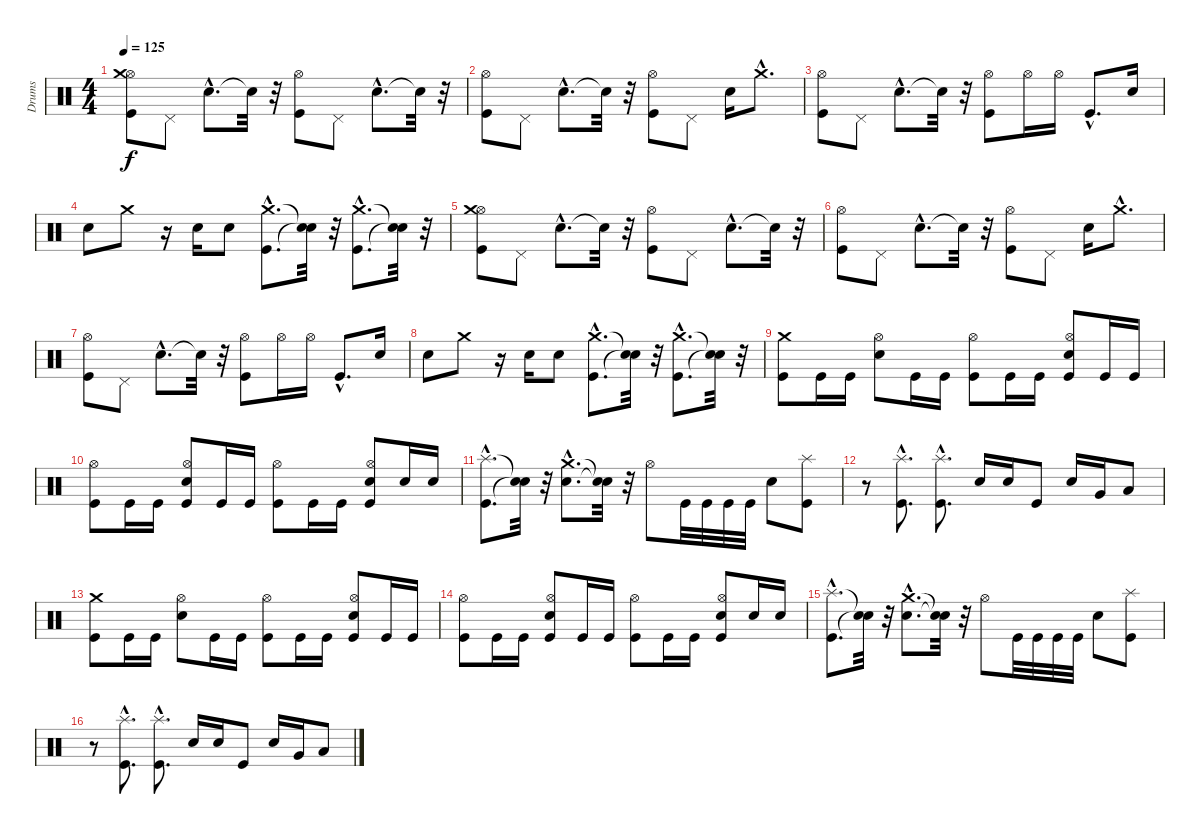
\track ("Drums" "Drums") {instrument percussion}
\staff {score}
\articulation defaults
\ts (4 4)
\tempo 125
\clef neutral
\ks c
("Kick (hit)" "Hi-Hat (open)" "Crash medium (hit)").8{dy f} "Pedal Hi-Hat (hit)".8 "Electric Snare (hit)"{hac}.8{d} "Snare (hit)"{t}.32 r.32 ("Kick (hit)" "Hi-Hat (open)").8 "Pedal Hi-Hat (hit)".8 "Electric Snare (hit)"{hac}.8{d} "Snare (hit)"{t}.32 r.32 |
("Kick (hit)" "Hi-Hat (open)").8 "Pedal Hi-Hat (hit)".8 "Electric Snare (hit)"{hac}.8{d} "Snare (hit)"{t}.32 r.32 ("Kick (hit)" "Hi-Hat (open)").8 "Pedal Hi-Hat (hit)".8 "Electric Snare (hit)".16 "Crash medium (hit)"{hac}.8{d} |
("Kick (hit)" "Hi-Hat (open)").8 "Pedal Hi-Hat (hit)".8 "Electric Snare (hit)"{hac}.8{d} "Snare (hit)"{t}.32 r.32 ("Kick (hit)" "Hi-Hat (open)").8 "Hi-Hat (open)".16 "Hi-Hat (open)".16 "Kick (hit)"{hac}.8{d} "Electric Snare (hit)".16 |
"Electric Snare (hit)".8 "Crash medium (hit)".8 r.16 "Electric Snare (hit)".16 "Electric Snare (hit)".8 ("Kick (hit)"{hac} "Crash medium (hit)"{hac}).8{d} ("Snare (hit)"{t} "Snare (hit)"{t}).32 r.32 ("Kick (hit)"{hac} "Crash medium (hit)"{hac}).8{d} ("Snare (hit)"{t} "Snare (hit)"{t}).32 r.32 |
("Kick (hit)" "Hi-Hat (open)" "Crash medium (hit)").8 "Pedal Hi-Hat (hit)".8 "Electric Snare (hit)"{hac}.8{d} "Snare (hit)"{t}.32 r.32 ("Kick (hit)" "Hi-Hat (open)").8 "Pedal Hi-Hat (hit)".8 "Electric Snare (hit)"{hac}.8{d} "Snare (hit)"{t}.32 r.32 |
("Kick (hit)" "Hi-Hat (open)").8 "Pedal Hi-Hat (hit)".8 "Electric Snare (hit)"{hac}.8{d} "Snare (hit)"{t}.32 r.32 ("Kick (hit)" "Hi-Hat (open)").8 "Pedal Hi-Hat (hit)".8 "Electric Snare (hit)".16 "Crash medium (hit)"{hac}.8{d} |
("Kick (hit)" "Hi-Hat (open)").8 "Pedal Hi-Hat (hit)".8 "Electric Snare (hit)"{hac}.8{d} "Snare (hit)"{t}.32 r.32 ("Kick (hit)" "Hi-Hat (open)").8 "Hi-Hat (open)".16 "Hi-Hat (open)".16 "Kick (hit)"{hac}.8{d} "Electric Snare (hit)".16 |
"Electric Snare (hit)".8 "Crash medium (hit)".8 r.16 "Electric Snare (hit)".16 "Electric Snare (hit)".8 ("Kick (hit)"{hac} "Crash medium (hit)"{hac}).8{d} ("Snare (hit)"{t} "Snare (hit)"{t}).32 r.32 ("Kick (hit)"{hac} "Crash medium (hit)"{hac}).8{d} ("Snare (hit)"{t} "Snare (hit)"{t}).32 r.32 |
("Kick (hit)" "Crash medium (hit)").8 "Kick (hit)".16 "Kick (hit)".16 ("Electric Snare (hit)" "Hi-Hat (open)").8 "Kick (hit)".16 "Kick (hit)".16 ("Kick (hit)" "Hi-Hat (open)").8 "Kick (hit)".16 "Kick (hit)".16 ("Kick (hit)" "Electric Snare (hit)" "Hi-Hat (open)").8 "Kick (hit)".16 "Kick (hit)".16 |
("Kick (hit)" "Hi-Hat (open)").8 "Kick (hit)".16 "Kick (hit)".16 ("Kick (hit)" "Electric Snare (hit)" "Hi-Hat (open)").8 "Kick (hit)".16 "Kick (hit)".16 ("Kick (hit)" "Hi-Hat (open)").8 "Kick (hit)".16 "Kick (hit)".16 ("Kick (hit)" "Electric Snare (hit)" "Hi-Hat (open)").8 "Electric Snare (hit)".16 "Electric Snare (hit)".16 |
("Kick (hit)"{hac} "Splash (hit)"{hac}).8{d} ("Snare (hit)"{t} "Snare (hit)"{t}).32 r.32 ("Electric Snare (hit)"{hac} "Crash medium (hit)"{hac}).8{d} ("Snare (hit)"{t} "Snare (hit)"{t}).32 r.32 "Hi-Hat (open)".8 "Kick (hit)".32 "Kick (hit)".32 "Kick (hit)".32 "Kick (hit)".32 "Electric Snare (hit)".8 ("Kick (hit)" "Splash (hit)").8 |
r.8 ("Kick (hit)"{hac} "Splash (hit)"{hac}).8{d} ("Kick (hit)"{hac} "Splash (hit)"{hac}).8{d} "Electric Snare (hit)".16 "Electric Snare (hit)".16 "Kick (hit)".8 "Electric Snare (hit)".16 "Very Low Tom (hit)".16 "Low Floor Tom (hit)".8 |
("Kick (hit)" "Crash medium (hit)").8 "Kick (hit)".16 "Kick (hit)".16 ("Electric Snare (hit)" "Hi-Hat (open)").8 "Kick (hit)".16 "Kick (hit)".16 ("Kick (hit)" "Hi-Hat (open)").8 "Kick (hit)".16 "Kick (hit)".16 ("Kick (hit)" "Electric Snare (hit)" "Hi-Hat (open)").8 "Kick (hit)".16 "Kick (hit)".16 |
("Kick (hit)" "Hi-Hat (open)").8 "Kick (hit)".16 "Kick (hit)".16 ("Kick (hit)" "Electric Snare (hit)" "Hi-Hat (open)").8 "Kick (hit)".16 "Kick (hit)".16 ("Kick (hit)" "Hi-Hat (open)").8 "Kick (hit)".16 "Kick (hit)".16 ("Kick (hit)" "Electric Snare (hit)" "Hi-Hat (open)").8 "Electric Snare (hit)".16 "Electric Snare (hit)".16 |
("Kick (hit)"{hac} "Splash (hit)"{hac}).8{d} ("Snare (hit)"{t} "Snare (hit)"{t}).32 r.32 ("Electric Snare (hit)"{hac} "Crash medium (hit)"{hac}).8{d} ("Snare (hit)"{t} "Snare (hit)"{t}).32 r.32 "Hi-Hat (open)".8 "Kick (hit)".32 "Kick (hit)".32 "Kick (hit)".32 "Kick (hit)".32 "Electric Snare (hit)".8 ("Kick (hit)" "Splash (hit)").8 |
r.8 ("Kick (hit)"{hac} "Splash (hit)"{hac}).8{d} ("Kick (hit)"{hac} "Splash (hit)"{hac}).8{d} "Electric Snare (hit)".16 "Electric Snare (hit)".16 "Kick (hit)".8 "Electric Snare (hit)".16 "Very Low Tom (hit)".16 "Low Floor Tom (hit)".8
